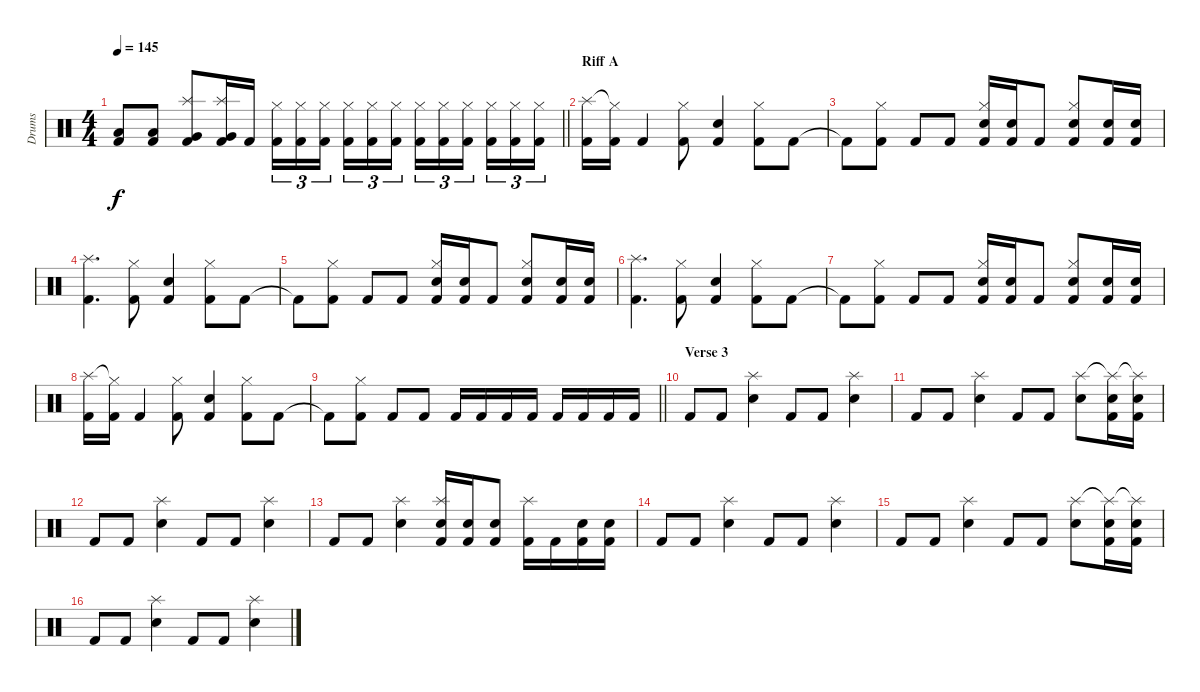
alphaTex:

\track ("Drums" "Drums") {instrument percussion}
\staff {score}
\articulation defaults
\ts (4 4)
\tempo 145
\clef neutral
\barLineRight lightlight
\ks c
("Low Tom (hit)" "Kick (hit) 2").8{dy f} ("Low Tom (hit)" "Kick (hit) 2").8 ("Splash (hit)" "Very Low Tom (hit)" "Kick (hit) 2").8 ("Splash (hit)" "Very Low Tom (hit)" "Kick (hit) 2").16 "Kick (hit) 2".16 ("Hi-Hat (closed)" "Kick (hit) 2").16{tu (3 2)} ("Hi-Hat (closed)" "Kick (hit) 2").16{tu (3 2)} ("Hi-Hat (closed)" "Kick (hit) 2").16{tu (3 2) beam splitsecondary} ("Hi-Hat (closed)" "Kick (hit) 2").16{tu (3 2)} ("Hi-Hat (closed)" "Kick (hit) 2").16{tu (3 2)} ("Hi-Hat (closed)" "Kick (hit) 2").16{tu (3 2)} ("Hi-Hat (closed)" "Kick (hit) 2").16{tu (3 2)} ("Hi-Hat (closed)" "Kick (hit) 2").16{tu (3 2)} ("Hi-Hat (closed)" "Kick (hit) 2").16{tu (3 2) beam splitsecondary} ("Hi-Hat (closed)" "Kick (hit) 2").16{tu (3 2)} ("Hi-Hat (closed)" "Kick (hit) 2").16{tu (3 2)} ("Hi-Hat (closed)" "Kick (hit) 2").16{tu (3 2)} |
\section ("" "Riff A")
("Splash (hit)" "Kick (hit) 2").16 ("Hi-Hat (closed)"{t} "Kick (hit) 2").16 "Kick (hit) 2".4 ("Hi-Hat (closed)" "Kick (hit) 2").8 ("Electric Snare (hit)" "Kick (hit) 2").4 ("Hi-Hat (closed)" "Kick (hit) 2").8 "Kick (hit) 2".8 |
"Kick (hit) 2"{t}.8 ("Hi-Hat (closed)" "Kick (hit) 2").8 "Kick (hit) 2".8 "Kick (hit) 2".8 ("Hi-Hat (closed)" "Electric Snare (hit)" "Kick (hit) 2").16 ("Electric Snare (hit)" "Kick (hit) 2").16 "Kick (hit) 2".8 ("Hi-Hat (closed)" "Electric Snare (hit)" "Kick (hit) 2").8 ("Electric Snare (hit)" "Kick (hit) 2").16 ("Electric Snare (hit)" "Kick (hit) 2").16 |
("Splash (hit)" "Kick (hit) 2").4{d} ("Hi-Hat (closed)" "Kick (hit) 2").8 ("Electric Snare (hit)" "Kick (hit) 2").4 ("Hi-Hat (closed)" "Kick (hit) 2").8 "Kick (hit) 2".8 |
"Kick (hit) 2"{t}.8 ("Hi-Hat (closed)" "Kick (hit) 2").8 "Kick (hit) 2".8 "Kick (hit) 2".8 ("Hi-Hat (closed)" "Electric Snare (hit)" "Kick (hit) 2").16 ("Electric Snare (hit)" "Kick (hit) 2").16 "Kick (hit) 2".8 ("Hi-Hat (closed)" "Electric Snare (hit)" "Kick (hit) 2").8 ("Electric Snare (hit)" "Kick (hit) 2").16 ("Electric Snare (hit)" "Kick (hit) 2").16 |
("Splash (hit)" "Kick (hit) 2").4{d} ("Hi-Hat (closed)" "Kick (hit) 2").8 ("Electric Snare (hit)" "Kick (hit) 2").4 ("Hi-Hat (closed)" "Kick (hit) 2").8 "Kick (hit) 2".8 |
"Kick (hit) 2"{t}.8 ("Hi-Hat (closed)" "Kick (hit) 2").8 "Kick (hit) 2".8 "Kick (hit) 2".8 ("Hi-Hat (closed)" "Electric Snare (hit)" "Kick (hit) 2").16 ("Electric Snare (hit)" "Kick (hit) 2").16 "Kick (hit) 2".8 ("Hi-Hat (closed)" "Electric Snare (hit)" "Kick (hit) 2").8 ("Electric Snare (hit)" "Kick (hit) 2").16 ("Electric Snare (hit)" "Kick (hit) 2").16 |
("Splash (hit)" "Kick (hit) 2").16 ("Hi-Hat (closed)"{t} "Kick (hit) 2").16 "Kick (hit) 2".4 ("Hi-Hat (closed)" "Kick (hit) 2").8 ("Electric Snare (hit)" "Kick (hit) 2").4 ("Hi-Hat (closed)" "Kick (hit) 2").8 "Kick (hit) 2".8 |
\barLineRight lightlight "Kick (hit) 2"{t}.8
("Hi-Hat (closed)" "Kick (hit) 2").8 "Kick (hit) 2".8 "Kick (hit) 2".8 "Kick (hit) 2".16 "Kick (hit) 2".16 "Kick (hit) 2".16 "Kick (hit) 2".16 "Kick (hit) 2".16 "Kick (hit) 2".16 "Kick (hit) 2".16 "Kick (hit) 2".16 |
\section ("" "Verse 3")
"Kick (hit) 2".8 "Kick (hit) 2".8 ("Splash (hit)" "Electric Snare (hit)").4 "Kick (hit) 2".8 "Kick (hit) 2".8 ("Splash (hit)" "Electric Snare (hit)").4 |
"Kick (hit) 2".8 "Kick (hit) 2".8 ("Splash (hit)" "Electric Snare (hit)").4 "Kick (hit) 2".8 "Kick (hit) 2".8 ("Splash (hit)" "Electric Snare (hit)").8 ("Splash (hit)"{t} "Electric Snare (hit)" "Kick (hit) 2").16 ("Splash (hit)"{t} "Electric Snare (hit)" "Kick (hit) 2").16 |
"Kick (hit) 2".8 "Kick (hit) 2".8 ("Splash (hit)" "Electric Snare (hit)").4 "Kick (hit) 2".8 "Kick (hit) 2".8 ("Splash (hit)" "Electric Snare (hit)").4 |
"Kick (hit) 2".8 "Kick (hit) 2".8 ("Splash (hit)" "Electric Snare (hit)").4 ("Splash (hit)" "Electric Snare (hit)" "Kick (hit) 2").16 ("Electric Snare (hit)" "Kick (hit) 2").16 ("Electric Snare (hit)" "Kick (hit) 2").8 ("Splash (hit)" "Kick (hit) 2").16 "Kick (hit) 2".16 ("Electric Snare (hit)" "Kick (hit) 2").16 ("Electric Snare (hit)" "Kick (hit) 2").16 |
"Kick (hit) 2".8 "Kick (hit) 2".8 ("Splash (hit)" "Electric Snare (hit)").4 "Kick (hit) 2".8 "Kick (hit) 2".8 ("Splash (hit)" "Electric Snare (hit)").4 |
"Kick (hit) 2".8 "Kick (hit) 2".8 ("Splash (hit)" "Electric Snare (hit)").4 "Kick (hit) 2".8 "Kick (hit) 2".8 ("Splash (hit)" "Electric Snare (hit)").8 ("Splash (hit)"{t} "Electric Snare (hit)" "Kick (hit) 2").16 ("Splash (hit)"{t} "Electric Snare (hit)" "Kick (hit) 2").16 |
"Kick (hit) 2".8 "Kick (hit) 2".8 ("Splash (hit)" "Electric Snare (hit)").4 "Kick (hit) 2".8 "Kick (hit) 2".8 ("Splash (hit)" "Electric Snare (hit)").4
